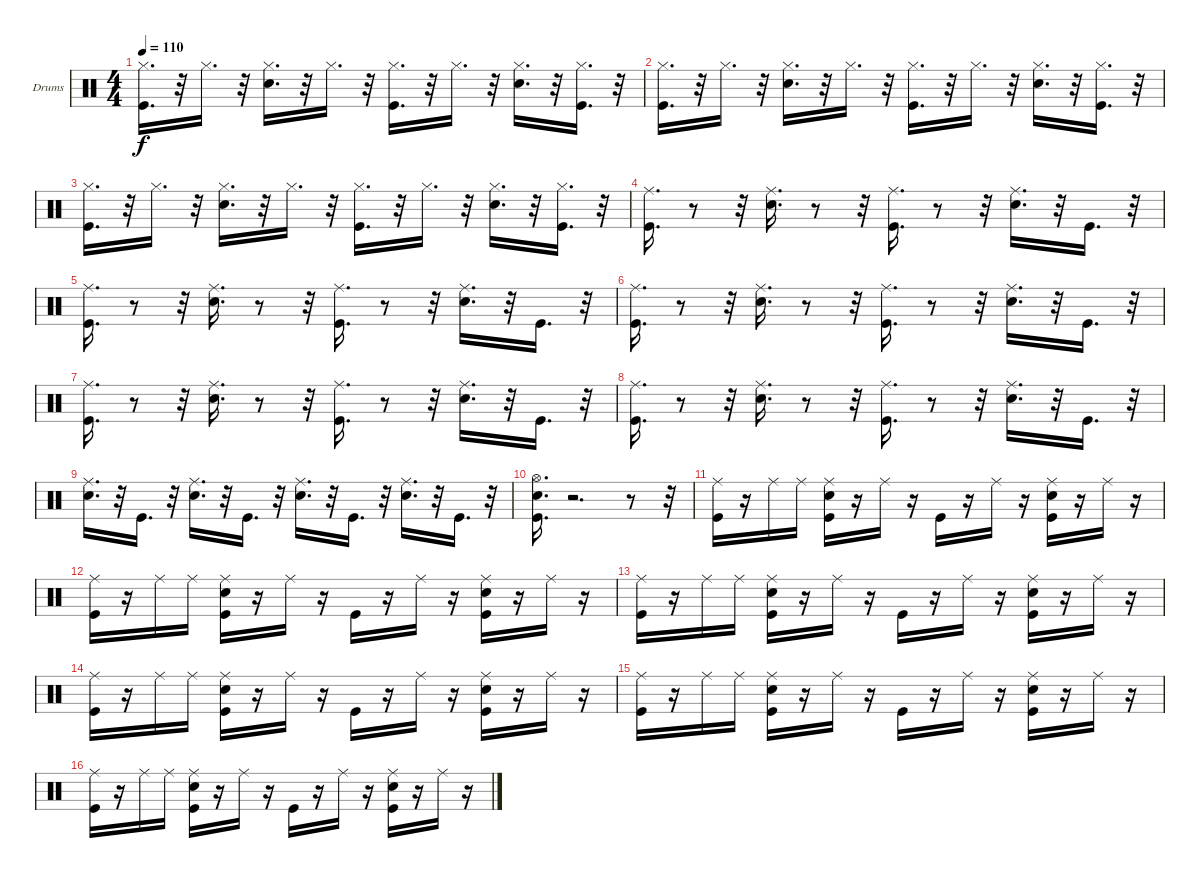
\bracketExtendMode groupsimilarinstruments
\firstSystemTrackNameOrientation horizontal
\otherSystemsTrackNameOrientation horizontal
\track ("Drumkit" "Drums") {instrument percussion}
\staff {score}
\articulation defaults
\ts (4 4)
\tempo 110
\clef neutral
\ks c
("Hi-Hat (closed)" "Kick (hit)").16{d dy f} r.32 "Hi-Hat (closed)".16{d} r.32 ("Snare (hit) 2" "Hi-Hat (closed)").16{d} r.32 "Hi-Hat (closed)".16{d} r.32 ("Hi-Hat (closed)" "Kick (hit)").16{d} r.32 "Hi-Hat (closed)".16{d} r.32 ("Snare (hit) 2" "Hi-Hat (closed)").16{d} r.32 ("Kick (hit)" "Hi-Hat (closed)").16{d} r.32 |
("Hi-Hat (closed)" "Kick (hit)").16{d} r.32 "Hi-Hat (closed)".16{d} r.32 ("Snare (hit) 2" "Hi-Hat (closed)").16{d} r.32 "Hi-Hat (closed)".16{d} r.32 ("Hi-Hat (closed)" "Kick (hit)").16{d} r.32 "Hi-Hat (closed)".16{d} r.32 ("Snare (hit) 2" "Hi-Hat (closed)").16{d} r.32 ("Kick (hit)" "Hi-Hat (closed)").16{d} r.32 |
("Hi-Hat (closed)" "Kick (hit)").16{d} r.32 "Hi-Hat (closed)".16{d} r.32 ("Snare (hit) 2" "Hi-Hat (closed)").16{d} r.32 "Hi-Hat (closed)".16{d} r.32 ("Hi-Hat (closed)" "Kick (hit)").16{d} r.32 "Hi-Hat (closed)".16{d} r.32 ("Snare (hit) 2" "Hi-Hat (closed)").16{d} r.32 ("Kick (hit)" "Hi-Hat (closed)").16{d} r.32 |
("Ride (middle)" "Kick (hit)").16{d} r.8 r.32 ("Ride (middle)" "Snare (hit) 2").16{d} r.8 r.32 ("Ride (middle)" "Kick (hit)").16{d} r.8 r.32 ("Ride (middle)" "Snare (hit) 2").16{d} r.32 "Kick (hit)".16{d} r.32 |
("Ride (middle)" "Kick (hit)").16{d} r.8 r.32 ("Ride (middle)" "Snare (hit) 2").16{d} r.8 r.32 ("Ride (middle)" "Kick (hit)").16{d} r.8 r.32 ("Ride (middle)" "Snare (hit) 2").16{d} r.32 "Kick (hit)".16{d} r.32 |
("Ride (middle)" "Kick (hit)").16{d} r.8 r.32 ("Ride (middle)" "Snare (hit) 2").16{d} r.8 r.32 ("Ride (middle)" "Kick (hit)").16{d} r.8 r.32 ("Ride (middle)" "Snare (hit) 2").16{d} r.32 "Kick (hit)".16{d} r.32 |
("Ride (middle)" "Kick (hit)").16{d} r.8 r.32 ("Ride (middle)" "Snare (hit) 2").16{d} r.8 r.32 ("Ride (middle)" "Kick (hit)").16{d} r.8 r.32 ("Ride (middle)" "Snare (hit) 2").16{d} r.32 "Kick (hit)".16{d} r.32 |
("Ride (middle)" "Kick (hit)").16{d} r.8 r.32 ("Ride (middle)" "Snare (hit) 2").16{d} r.8 r.32 ("Ride (middle)" "Kick (hit)").16{d} r.8 r.32 ("Ride (middle)" "Snare (hit) 2").16{d} r.32 "Kick (hit)".16{d} r.32 |
("Snare (hit) 2" "Ride (middle)").16{d} r.32 "Kick (hit)".16{d} r.32 ("Ride (middle)" "Snare (hit) 2").16{d} r.32 "Kick (hit)".16{d} r.32 ("Snare (hit) 2" "Ride (middle)").16{d} r.32 "Kick (hit)".16{d} r.32 ("Ride (middle)" "Snare (hit) 2").16{d} r.32 "Kick (hit)".16{d} r.32 |
("Hi-Hat (open)" "Snare (hit) 2" "Kick (hit)").16{d} r.2{d} r.8 r.32 |
("Kick (hit)" "Ride (middle)").16 r.16 "Ride (middle)".16 "Ride (middle)".16 ("Snare (hit) 2" "Ride (middle)" "Kick (hit)").16 r.16 "Ride (middle)".16 r.16 "Kick (hit)".16 r.16 "Ride (middle)".16 r.16 ("Snare (hit) 2" "Ride (middle)" "Kick (hit)").16 r.16 "Ride (middle)".16 r.16 |
("Kick (hit)" "Ride (middle)").16 r.16 "Ride (middle)".16 "Ride (middle)".16 ("Snare (hit) 2" "Ride (middle)" "Kick (hit)").16 r.16 "Ride (middle)".16 r.16 "Kick (hit)".16 r.16 "Ride (middle)".16 r.16 ("Snare (hit) 2" "Ride (middle)" "Kick (hit)").16 r.16 "Ride (middle)".16 r.16 |
("Kick (hit)" "Ride (middle)").16 r.16 "Ride (middle)".16 "Ride (middle)".16 ("Snare (hit) 2" "Ride (middle)" "Kick (hit)").16 r.16 "Ride (middle)".16 r.16 "Kick (hit)".16 r.16 "Ride (middle)".16 r.16 ("Snare (hit) 2" "Ride (middle)" "Kick (hit)").16 r.16 "Ride (middle)".16 r.16 |
("Kick (hit)" "Ride (middle)").16 r.16 "Ride (middle)".16 "Ride (middle)".16 ("Snare (hit) 2" "Ride (middle)" "Kick (hit)").16 r.16 "Ride (middle)".16 r.16 "Kick (hit)".16 r.16 "Ride (middle)".16 r.16 ("Snare (hit) 2" "Ride (middle)" "Kick (hit)").16 r.16 "Ride (middle)".16 r.16 |
("Kick (hit)" "Ride (middle)").16 r.16 "Ride (middle)".16 "Ride (middle)".16 ("Snare (hit) 2" "Ride (middle)" "Kick (hit)").16 r.16 "Ride (middle)".16 r.16 "Kick (hit)".16 r.16 "Ride (middle)".16 r.16 ("Snare (hit) 2" "Ride (middle)" "Kick (hit)").16 r.16 "Ride (middle)".16 r.16 |
("Kick (hit)" "Ride (middle)").16 r.16 "Ride (middle)".16 "Ride (middle)".16 ("Snare (hit) 2" "Ride (middle)" "Kick (hit)").16 r.16 "Ride (middle)".16 r.16 "Kick (hit)".16 r.16 "Ride (middle)".16 r.16 ("Snare (hit) 2" "Ride (middle)" "Kick (hit)").16 r.16 "Ride (middle)".16 r.16
